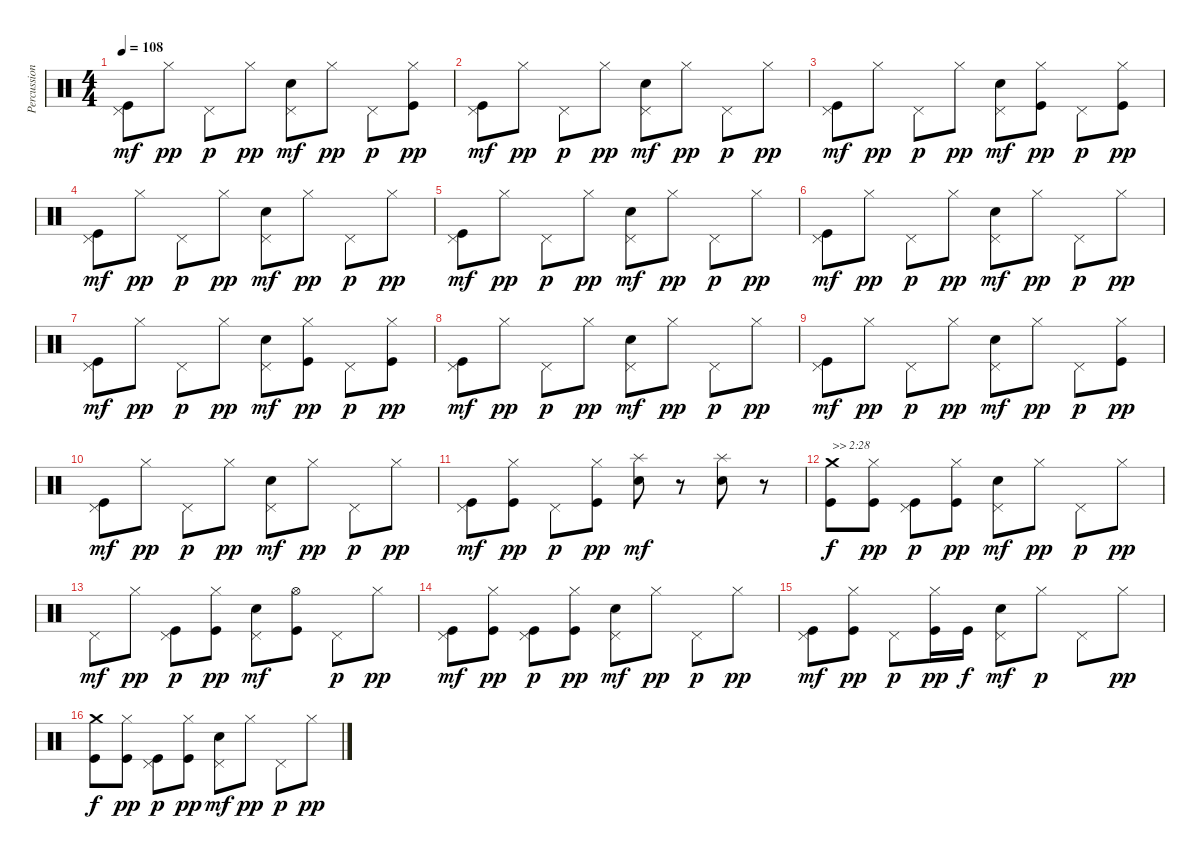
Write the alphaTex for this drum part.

\track ("Percussion" "Percussion") {instrument percussion}
\staff {score}
\articulation defaults
\ts (4 4)
\tempo 108
\clef neutral
\ks c
("Kick (hit)" "Pedal Hi-Hat (hit)").8{dy mf} "Hi-Hat (closed)".8{dy pp} "Pedal Hi-Hat (hit)".8{dy p} "Hi-Hat (closed)".8{dy pp} ("Electric Snare (hit)" "Pedal Hi-Hat (hit)").8{dy mf} "Hi-Hat (closed)".8{dy pp} "Pedal Hi-Hat (hit)".8{dy p} ("Kick (hit)" "Hi-Hat (closed)").8{dy pp} |
("Kick (hit)" "Pedal Hi-Hat (hit)").8{dy mf} "Hi-Hat (closed)".8{dy pp} "Pedal Hi-Hat (hit)".8{dy p} "Hi-Hat (closed)".8{dy pp} ("Electric Snare (hit)" "Pedal Hi-Hat (hit)").8{dy mf} "Hi-Hat (closed)".8{dy pp} "Pedal Hi-Hat (hit)".8{dy p} "Hi-Hat (closed)".8{dy pp} |
("Kick (hit)" "Pedal Hi-Hat (hit)").8{dy mf} "Hi-Hat (closed)".8{dy pp} "Pedal Hi-Hat (hit)".8{dy p} "Hi-Hat (closed)".8{dy pp} ("Electric Snare (hit)" "Pedal Hi-Hat (hit)").8{dy mf} ("Kick (hit)" "Hi-Hat (closed)").8{dy pp} "Pedal Hi-Hat (hit)".8{dy p} ("Kick (hit)" "Hi-Hat (closed)").8{dy pp} |
("Kick (hit)" "Pedal Hi-Hat (hit)").8{dy mf} "Hi-Hat (closed)".8{dy pp} "Pedal Hi-Hat (hit)".8{dy p} "Hi-Hat (closed)".8{dy pp} ("Electric Snare (hit)" "Pedal Hi-Hat (hit)").8{dy mf} "Hi-Hat (closed)".8{dy pp} "Pedal Hi-Hat (hit)".8{dy p} "Hi-Hat (closed)".8{dy pp} |
("Kick (hit)" "Pedal Hi-Hat (hit)").8{dy mf} "Hi-Hat (closed)".8{dy pp} "Pedal Hi-Hat (hit)".8{dy p} "Hi-Hat (closed)".8{dy pp} ("Electric Snare (hit)" "Pedal Hi-Hat (hit)").8{dy mf} "Hi-Hat (closed)".8{dy pp} "Pedal Hi-Hat (hit)".8{dy p} "Hi-Hat (closed)".8{dy pp} |
("Kick (hit)" "Pedal Hi-Hat (hit)").8{dy mf} "Hi-Hat (closed)".8{dy pp} "Pedal Hi-Hat (hit)".8{dy p} "Hi-Hat (closed)".8{dy pp} ("Electric Snare (hit)" "Pedal Hi-Hat (hit)").8{dy mf} "Hi-Hat (closed)".8{dy pp} "Pedal Hi-Hat (hit)".8{dy p} "Hi-Hat (closed)".8{dy pp} |
("Kick (hit)" "Pedal Hi-Hat (hit)").8{dy mf} "Hi-Hat (closed)".8{dy pp} "Pedal Hi-Hat (hit)".8{dy p} "Hi-Hat (closed)".8{dy pp} ("Electric Snare (hit)" "Pedal Hi-Hat (hit)").8{dy mf} ("Kick (hit)" "Hi-Hat (closed)").8{dy pp} "Pedal Hi-Hat (hit)".8{dy p} ("Kick (hit)" "Hi-Hat (closed)").8{dy pp} |
("Kick (hit)" "Pedal Hi-Hat (hit)").8{dy mf} "Hi-Hat (closed)".8{dy pp} "Pedal Hi-Hat (hit)".8{dy p} "Hi-Hat (closed)".8{dy pp} ("Electric Snare (hit)" "Pedal Hi-Hat (hit)").8{dy mf} "Hi-Hat (closed)".8{dy pp} "Pedal Hi-Hat (hit)".8{dy p} "Hi-Hat (closed)".8{dy pp} |
("Kick (hit)" "Pedal Hi-Hat (hit)").8{dy mf} "Hi-Hat (closed)".8{dy pp} "Pedal Hi-Hat (hit)".8{dy p} "Hi-Hat (closed)".8{dy pp} ("Electric Snare (hit)" "Pedal Hi-Hat (hit)").8{dy mf} "Hi-Hat (closed)".8{dy pp} "Pedal Hi-Hat (hit)".8{dy p} ("Kick (hit)" "Hi-Hat (closed)").8{dy pp} |
("Kick (hit)" "Pedal Hi-Hat (hit)").8{dy mf} "Hi-Hat (closed)".8{dy pp} "Pedal Hi-Hat (hit)".8{dy p} "Hi-Hat (closed)".8{dy pp} ("Electric Snare (hit)" "Pedal Hi-Hat (hit)").8{dy mf} "Hi-Hat (closed)".8{dy pp} "Pedal Hi-Hat (hit)".8{dy p} "Hi-Hat (closed)".8{dy pp} |
("Kick (hit)" "Pedal Hi-Hat (hit)").8{dy mf} ("Kick (hit)" "Hi-Hat (closed)").8{dy pp} "Pedal Hi-Hat (hit)".8{dy p} ("Kick (hit)" "Hi-Hat (closed)").8{dy pp} ("Electric Snare (hit)" "Splash (hit)").8{dy mf} r.8 ("Electric Snare (hit)" "Splash (hit)").8 r.8 |
("Kick (hit)" "Crash medium (hit)").8{txt ">> 2:28" dy f} ("Kick (hit)" "Hi-Hat (closed)").8{dy pp} ("Kick (hit)" "Pedal Hi-Hat (hit)").8{dy p} ("Kick (hit)" "Hi-Hat (closed)").8{dy pp} ("Electric Snare (hit)" "Pedal Hi-Hat (hit)").8{dy mf} "Hi-Hat (closed)".8{dy pp} "Pedal Hi-Hat (hit)".8{dy p} "Hi-Hat (closed)".8{dy pp} |
"Pedal Hi-Hat (hit)".8{dy mf} "Hi-Hat (closed)".8{dy pp} ("Kick (hit)" "Pedal Hi-Hat (hit)").8{dy p} ("Kick (hit)" "Hi-Hat (closed)").8{dy pp} ("Electric Snare (hit)" "Pedal Hi-Hat (hit)").8{dy mf} ("Kick (hit)" "Hi-Hat (open)").8 "Pedal Hi-Hat (hit)".8{dy p} "Hi-Hat (closed)".8{dy pp} |
("Kick (hit)" "Pedal Hi-Hat (hit)").8{dy mf} ("Kick (hit)" "Hi-Hat (closed)").8{dy pp} ("Kick (hit)" "Pedal Hi-Hat (hit)").8{dy p} ("Kick (hit)" "Hi-Hat (closed)").8{dy pp} ("Electric Snare (hit)" "Pedal Hi-Hat (hit)").8{dy mf} "Hi-Hat (closed)".8{dy pp} "Pedal Hi-Hat (hit)".8{dy p} "Hi-Hat (closed)".8{dy pp} |
("Kick (hit)" "Pedal Hi-Hat (hit)").8{dy mf} ("Kick (hit)" "Hi-Hat (closed)").8{dy pp} "Pedal Hi-Hat (hit)".8{dy p} ("Kick (hit)" "Hi-Hat (closed)").16{dy pp} "Kick (hit)".16{dy f} ("Electric Snare (hit)" "Pedal Hi-Hat (hit)").8{dy mf} "Hi-Hat (closed)".8{dy p} "Pedal Hi-Hat (hit)".8 "Hi-Hat (closed)".8{dy pp} |
("Kick (hit)" "Crash medium (hit)").8{dy f} ("Kick (hit)" "Hi-Hat (closed)").8{dy pp} ("Kick (hit)" "Pedal Hi-Hat (hit)").8{dy p} ("Kick (hit)" "Hi-Hat (closed)").8{dy pp} ("Electric Snare (hit)" "Pedal Hi-Hat (hit)").8{dy mf} "Hi-Hat (closed)".8{dy pp} "Pedal Hi-Hat (hit)".8{dy p} "Hi-Hat (closed)".8{dy pp}
